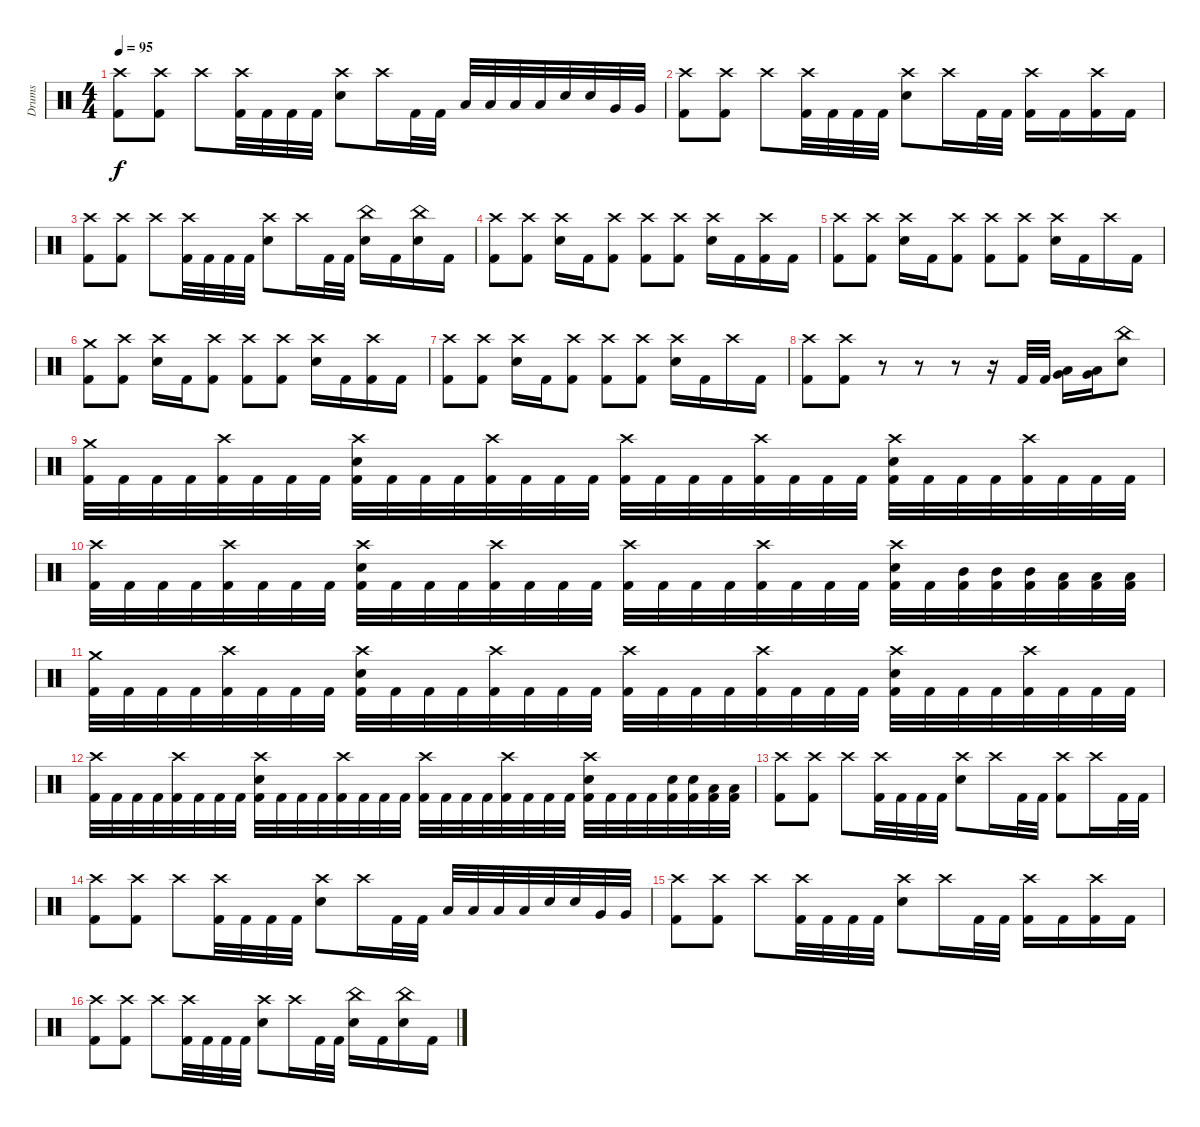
\track ("Drums" "Drums") {instrument percussion}
\staff {score}
\articulation defaults
\ts (4 4)
\tempo 95
\clef neutral
\ks c
("Crash high (hit)" "Kick (hit) 2").8{dy f} ("Crash high (hit)" "Kick (hit) 2").8 "Crash high (hit)".8 ("Crash high (hit)" "Kick (hit) 2").32 "Kick (hit) 2".32 "Kick (hit) 2".32 "Kick (hit) 2".32 ("Crash high (hit)" "Electric Snare (hit)").8 "Crash high (hit)".16 "Kick (hit) 2".32 "Kick (hit) 2".32 "Low Tom (hit)".32 "Low Tom (hit)".32 "Low Tom (hit)".32 "Low Tom (hit)".32 "Electric Snare (hit)".32 "Electric Snare (hit)".32 "Very Low Tom (hit)".32 "Very Low Tom (hit)".32 |
("Crash high (hit)" "Kick (hit) 2").8 ("Crash high (hit)" "Kick (hit) 2").8 "Crash high (hit)".8 ("Crash high (hit)" "Kick (hit) 2").32 "Kick (hit) 2".32 "Kick (hit) 2".32 "Kick (hit) 2".32 ("Crash high (hit)" "Electric Snare (hit)").8 "Crash high (hit)".16 "Kick (hit) 2".32 "Kick (hit) 2".32 ("Crash high (hit)" "Kick (hit) 2").16 "Kick (hit) 2".16 ("Crash high (hit)" "Kick (hit) 2").16 "Kick (hit) 2".16 |
("Crash high (hit)" "Kick (hit) 2").8 ("Crash high (hit)" "Kick (hit) 2").8 "Crash high (hit)".8 ("Crash high (hit)" "Kick (hit) 2").32 "Kick (hit) 2".32 "Kick (hit) 2".32 "Kick (hit) 2".32 ("Crash high (hit)" "Electric Snare (hit)").8 "Crash high (hit)".16 "Kick (hit) 2".32 "Kick (hit) 2".32 ("China (hit)" "Electric Snare (hit)").16 "Kick (hit) 2".16 ("China (hit)" "Electric Snare (hit)").16 "Kick (hit) 2".16 |
("Crash high (hit)" "Kick (hit) 2").8 ("Crash high (hit)" "Kick (hit) 2").8 ("Crash high (hit)" "Electric Snare (hit)").16 "Kick (hit) 2".16 ("Crash high (hit)" "Kick (hit) 2").8 ("Crash high (hit)" "Kick (hit) 2").8 ("Crash high (hit)" "Kick (hit) 2").8 ("Crash high (hit)" "Electric Snare (hit)").16 "Kick (hit) 2".16 ("Crash high (hit)" "Kick (hit) 2").16 "Kick (hit) 2".16 |
("Crash high (hit)" "Kick (hit) 2").8 ("Crash high (hit)" "Kick (hit) 2").8 ("Crash high (hit)" "Electric Snare (hit)").16 "Kick (hit) 2".16 ("Crash high (hit)" "Kick (hit) 2").8 ("Crash high (hit)" "Kick (hit) 2").8 ("Crash high (hit)" "Kick (hit) 2").8 ("Crash high (hit)" "Electric Snare (hit)").16 "Kick (hit) 2".16 "Crash high (hit)".16 "Kick (hit) 2".16 |
("Crash medium (hit)" "Kick (hit) 2").8 ("Crash high (hit)" "Kick (hit) 2").8 ("Crash high (hit)" "Electric Snare (hit)").16 "Kick (hit) 2".16 ("Crash high (hit)" "Kick (hit) 2").8 ("Crash high (hit)" "Kick (hit) 2").8 ("Crash high (hit)" "Kick (hit) 2").8 ("Crash high (hit)" "Electric Snare (hit)").16 "Kick (hit) 2".16 ("Crash high (hit)" "Kick (hit) 2").16 "Kick (hit) 2".16 |
("Crash high (hit)" "Kick (hit) 2").8 ("Crash high (hit)" "Kick (hit) 2").8 ("Crash high (hit)" "Electric Snare (hit)").16 "Kick (hit) 2".16 ("Crash high (hit)" "Kick (hit) 2").8 ("Crash high (hit)" "Kick (hit) 2").8 ("Crash high (hit)" "Kick (hit) 2").8 ("Crash high (hit)" "Electric Snare (hit)").16 "Kick (hit) 2".16 "Crash high (hit)".16 "Kick (hit) 2".16 |
("Crash high (hit)" "Kick (hit) 2").8 ("Crash high (hit)" "Kick (hit) 2").8 r.8 r.8 r.8 r.16 "Kick (hit) 2".32 "Kick (hit) 2".32 ("Low Tom (hit)" "Very Low Tom (hit)").16 ("Very Low Tom (hit)" "Low Floor Tom (hit)").16 ("China (hit)" "Electric Snare (hit)").8 |
("Crash medium (hit)" "Kick (hit) 2").32 "Kick (hit) 2".32 "Kick (hit) 2".32 "Kick (hit) 2".32 ("Crash high (hit)" "Kick (hit) 2").32 "Kick (hit) 2".32 "Kick (hit) 2".32 "Kick (hit) 2".32 ("Crash high (hit)" "Electric Snare (hit)" "Kick (hit) 2").32 "Kick (hit) 2".32 "Kick (hit) 2".32 "Kick (hit) 2".32 ("Crash high (hit)" "Kick (hit) 2").32 "Kick (hit) 2".32 "Kick (hit) 2".32 "Kick (hit) 2".32 ("Crash high (hit)" "Kick (hit) 2").32 "Kick (hit) 2".32 "Kick (hit) 2".32 "Kick (hit) 2".32 ("Crash high (hit)" "Kick (hit) 2").32 "Kick (hit) 2".32 "Kick (hit) 2".32 "Kick (hit) 2".32 ("Crash high (hit)" "Electric Snare (hit)" "Kick (hit) 2").32 "Kick (hit) 2".32 "Kick (hit) 2".32 "Kick (hit) 2".32 ("Crash high (hit)" "Kick (hit) 2").32 "Kick (hit) 2".32 "Kick (hit) 2".32 "Kick (hit) 2".32 |
("Crash high (hit)" "Kick (hit) 2").32 "Kick (hit) 2".32 "Kick (hit) 2".32 "Kick (hit) 2".32 ("Crash high (hit)" "Kick (hit) 2").32 "Kick (hit) 2".32 "Kick (hit) 2".32 "Kick (hit) 2".32 ("Crash high (hit)" "Electric Snare (hit)" "Kick (hit) 2").32 "Kick (hit) 2".32 "Kick (hit) 2".32 "Kick (hit) 2".32 ("Crash high (hit)" "Kick (hit) 2").32 "Kick (hit) 2".32 "Kick (hit) 2".32 "Kick (hit) 2".32 ("Crash high (hit)" "Kick (hit) 2").32 "Kick (hit) 2".32 "Kick (hit) 2".32 "Kick (hit) 2".32 ("Crash high (hit)" "Kick (hit) 2").32 "Kick (hit) 2".32 "Kick (hit) 2".32 "Kick (hit) 2".32 ("Crash high (hit)" "Electric Snare (hit)" "Kick (hit) 2").32 "Kick (hit) 2".32 ("Mid Tom (hit)" "Kick (hit) 2").32 ("Mid Tom (hit)" "Kick (hit) 2").32 ("Mid Tom (hit)" "Kick (hit) 2").32 ("Low Tom (hit)" "Kick (hit) 2").32 ("Low Tom (hit)" "Kick (hit) 2").32 ("Low Tom (hit)" "Kick (hit) 2").32 |
("Crash medium (hit)" "Kick (hit) 2").32 "Kick (hit) 2".32 "Kick (hit) 2".32 "Kick (hit) 2".32 ("Crash high (hit)" "Kick (hit) 2").32 "Kick (hit) 2".32 "Kick (hit) 2".32 "Kick (hit) 2".32 ("Crash high (hit)" "Electric Snare (hit)" "Kick (hit) 2").32 "Kick (hit) 2".32 "Kick (hit) 2".32 "Kick (hit) 2".32 ("Crash high (hit)" "Kick (hit) 2").32 "Kick (hit) 2".32 "Kick (hit) 2".32 "Kick (hit) 2".32 ("Crash high (hit)" "Kick (hit) 2").32 "Kick (hit) 2".32 "Kick (hit) 2".32 "Kick (hit) 2".32 ("Crash high (hit)" "Kick (hit) 2").32 "Kick (hit) 2".32 "Kick (hit) 2".32 "Kick (hit) 2".32 ("Crash high (hit)" "Electric Snare (hit)" "Kick (hit) 2").32 "Kick (hit) 2".32 "Kick (hit) 2".32 "Kick (hit) 2".32 ("Crash high (hit)" "Kick (hit) 2").32 "Kick (hit) 2".32 "Kick (hit) 2".32 "Kick (hit) 2".32 |
("Crash high (hit)" "Kick (hit) 2").32 "Kick (hit) 2".32 "Kick (hit) 2".32 "Kick (hit) 2".32 ("Crash high (hit)" "Kick (hit) 2").32 "Kick (hit) 2".32 "Kick (hit) 2".32 "Kick (hit) 2".32 ("Crash high (hit)" "Electric Snare (hit)" "Kick (hit) 2").32 "Kick (hit) 2".32 "Kick (hit) 2".32 "Kick (hit) 2".32 ("Crash high (hit)" "Kick (hit) 2").32 "Kick (hit) 2".32 "Kick (hit) 2".32 "Kick (hit) 2".32 ("Crash high (hit)" "Kick (hit) 2").32 "Kick (hit) 2".32 "Kick (hit) 2".32 "Kick (hit) 2".32 ("Crash high (hit)" "Kick (hit) 2").32 "Kick (hit) 2".32 "Kick (hit) 2".32 "Kick (hit) 2".32 ("Crash high (hit)" "Electric Snare (hit)" "Kick (hit) 2").32 "Kick (hit) 2".32 "Kick (hit) 2".32 "Kick (hit) 2".32 ("Electric Snare (hit)" "Kick (hit) 2").32 ("Electric Snare (hit)" "Kick (hit) 2").32 ("Low Tom (hit)" "Kick (hit) 2").32 ("Low Tom (hit)" "Kick (hit) 2").32 |
("Crash high (hit)" "Kick (hit) 2").8 ("Crash high (hit)" "Kick (hit) 2").8 "Crash high (hit)".8 ("Crash high (hit)" "Kick (hit) 2").32 "Kick (hit) 2".32 "Kick (hit) 2".32 "Kick (hit) 2".32 ("Crash high (hit)" "Electric Snare (hit)").8 "Crash high (hit)".16 "Kick (hit) 2".32 "Kick (hit) 2".32 ("Crash high (hit)" "Kick (hit) 2").8 "Crash high (hit)".16 "Kick (hit) 2".32 "Kick (hit) 2".32 |
("Crash high (hit)" "Kick (hit) 2").8 ("Crash high (hit)" "Kick (hit) 2").8 "Crash high (hit)".8 ("Crash high (hit)" "Kick (hit) 2").32 "Kick (hit) 2".32 "Kick (hit) 2".32 "Kick (hit) 2".32 ("Crash high (hit)" "Electric Snare (hit)").8 "Crash high (hit)".16 "Kick (hit) 2".32 "Kick (hit) 2".32 "Low Tom (hit)".32 "Low Tom (hit)".32 "Low Tom (hit)".32 "Low Tom (hit)".32 "Electric Snare (hit)".32 "Electric Snare (hit)".32 "Very Low Tom (hit)".32 "Very Low Tom (hit)".32 |
("Crash high (hit)" "Kick (hit) 2").8 ("Crash high (hit)" "Kick (hit) 2").8 "Crash high (hit)".8 ("Crash high (hit)" "Kick (hit) 2").32 "Kick (hit) 2".32 "Kick (hit) 2".32 "Kick (hit) 2".32 ("Crash high (hit)" "Electric Snare (hit)").8 "Crash high (hit)".16 "Kick (hit) 2".32 "Kick (hit) 2".32 ("Crash high (hit)" "Kick (hit) 2").16 "Kick (hit) 2".16 ("Crash high (hit)" "Kick (hit) 2").16 "Kick (hit) 2".16 |
("Crash high (hit)" "Kick (hit) 2").8 ("Crash high (hit)" "Kick (hit) 2").8 "Crash high (hit)".8 ("Crash high (hit)" "Kick (hit) 2").32 "Kick (hit) 2".32 "Kick (hit) 2".32 "Kick (hit) 2".32 ("Crash high (hit)" "Electric Snare (hit)").8 "Crash high (hit)".16 "Kick (hit) 2".32 "Kick (hit) 2".32 ("China (hit)" "Electric Snare (hit)").16 "Kick (hit) 2".16 ("China (hit)" "Electric Snare (hit)").16 "Kick (hit) 2".16
